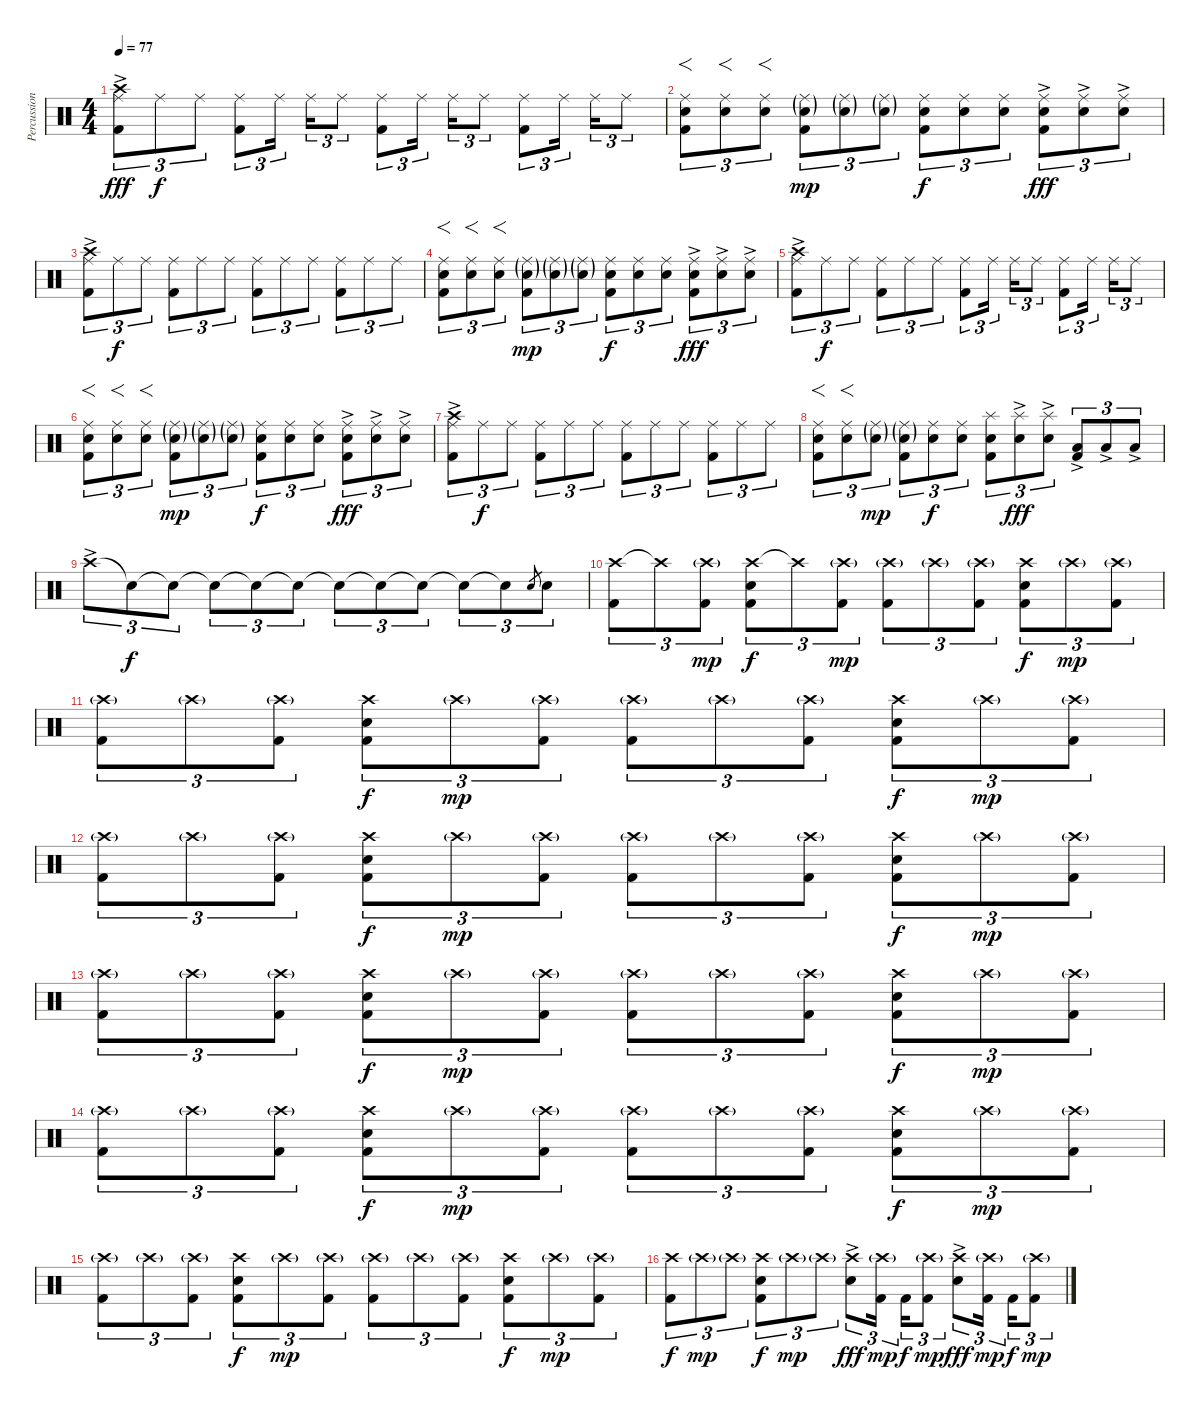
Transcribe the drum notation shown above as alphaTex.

\track ("Percussion" "Percussion") {instrument percussion}
\staff {score}
\articulation defaults
\ts (4 4)
\tempo 77
\clef neutral
\ks c
("Ride (middle)" "Crash high (hit)"{ac} "Kick (hit) 2").8{tu (3 2) dy fff} "Ride (middle)".8{tu (3 2) dy f} "Ride (middle)".8{tu (3 2)} ("Ride (middle)" "Kick (hit) 2").8{tu (3 2)} "Ride (middle)".16{tu (3 2)} "Ride (middle)".16{tu (3 2)} "Ride (middle)".8{tu (3 2)} ("Ride (middle)" "Kick (hit) 2").8{tu (3 2)} "Ride (middle)".16{tu (3 2)} "Ride (middle)".16{tu (3 2)} "Ride (middle)".8{tu (3 2)} ("Ride (middle)" "Kick (hit) 2").8{tu (3 2)} "Ride (middle)".16{tu (3 2)} "Ride (middle)".16{tu (3 2)} "Ride (middle)".8{tu (3 2)} |
("Ride (middle)" "Snare (hit) 2" "Kick (hit) 2").8{f tu (3 2)} ("Ride (middle)" "Snare (hit) 2").8{f tu (3 2)} ("Ride (middle)" "Snare (hit) 2").8{f tu (3 2)} ("Ride (middle)"{g} "Snare (hit) 2"{g} "Kick (hit) 2").8{tu (3 2) dy mp} ("Ride (middle)"{g} "Snare (hit) 2"{g}).8{tu (3 2)} ("Ride (middle)"{g} "Snare (hit) 2"{g}).8{tu (3 2)} ("Ride (middle)" "Snare (hit) 2" "Kick (hit) 2").8{tu (3 2) dy f} ("Ride (middle)" "Snare (hit) 2").8{tu (3 2)} ("Ride (middle)" "Snare (hit) 2").8{tu (3 2)} ("Ride (middle)"{ac} "Snare (hit) 2"{ac} "Kick (hit) 2").8{tu (3 2) dy fff} ("Ride (middle)"{ac} "Snare (hit) 2"{ac}).8{tu (3 2)} ("Ride (middle)"{ac} "Snare (hit) 2"{ac}).8{tu (3 2)} |
("Ride (middle)" "Crash high (hit)"{ac} "Kick (hit) 2").8{tu (3 2)} "Ride (middle)".8{tu (3 2) dy f} "Ride (middle)".8{tu (3 2)} ("Ride (middle)" "Kick (hit) 2").8{tu (3 2)} "Ride (middle)".8{tu (3 2)} "Ride (middle)".8{tu (3 2)} ("Ride (middle)" "Kick (hit) 2").8{tu (3 2)} "Ride (middle)".8{tu (3 2)} "Ride (middle)".8{tu (3 2)} ("Ride (middle)" "Kick (hit) 2").8{tu (3 2)} "Ride (middle)".8{tu (3 2)} "Ride (middle)".8{tu (3 2)} |
("Ride (middle)" "Snare (hit) 2" "Kick (hit) 2").8{f tu (3 2)} ("Ride (middle)" "Snare (hit) 2").8{f tu (3 2)} ("Ride (middle)" "Snare (hit) 2").8{f tu (3 2)} ("Ride (middle)"{g} "Snare (hit) 2"{g} "Kick (hit) 2").8{tu (3 2) dy mp} ("Ride (middle)"{g} "Snare (hit) 2"{g}).8{tu (3 2)} ("Ride (middle)"{g} "Snare (hit) 2"{g}).8{tu (3 2)} ("Ride (middle)" "Snare (hit) 2" "Kick (hit) 2").8{tu (3 2) dy f} ("Ride (middle)" "Snare (hit) 2").8{tu (3 2)} ("Ride (middle)" "Snare (hit) 2").8{tu (3 2)} ("Ride (middle)"{ac} "Snare (hit) 2"{ac} "Kick (hit) 2").8{tu (3 2) dy fff} ("Ride (middle)"{ac} "Snare (hit) 2"{ac}).8{tu (3 2)} ("Ride (middle)"{ac} "Snare (hit) 2"{ac}).8{tu (3 2)} |
("Ride (middle)" "Crash high (hit)"{ac} "Kick (hit) 2").8{tu (3 2)} "Ride (middle)".8{tu (3 2) dy f} "Ride (middle)".8{tu (3 2)} ("Ride (middle)" "Kick (hit) 2").8{tu (3 2)} "Ride (middle)".8{tu (3 2)} "Ride (middle)".8{tu (3 2)} ("Ride (middle)" "Kick (hit) 2").8{tu (3 2)} "Ride (middle)".16{tu (3 2)} "Ride (middle)".16{tu (3 2)} "Ride (middle)".8{tu (3 2)} ("Ride (middle)" "Kick (hit) 2").8{tu (3 2)} "Ride (middle)".16{tu (3 2)} "Ride (middle)".16{tu (3 2)} "Ride (middle)".8{tu (3 2)} |
("Ride (middle)" "Snare (hit) 2" "Kick (hit) 2").8{f tu (3 2)} ("Ride (middle)" "Snare (hit) 2").8{f tu (3 2)} ("Ride (middle)" "Snare (hit) 2").8{f tu (3 2)} ("Ride (middle)"{g} "Snare (hit) 2"{g} "Kick (hit) 2").8{tu (3 2) dy mp} ("Ride (middle)"{g} "Snare (hit) 2"{g}).8{tu (3 2)} ("Ride (middle)"{g} "Snare (hit) 2"{g}).8{tu (3 2)} ("Ride (middle)" "Snare (hit) 2" "Kick (hit) 2").8{tu (3 2) dy f} ("Ride (middle)" "Snare (hit) 2").8{tu (3 2)} ("Ride (middle)" "Snare (hit) 2").8{tu (3 2)} ("Ride (middle)"{ac} "Snare (hit) 2"{ac} "Kick (hit) 2").8{tu (3 2) dy fff} ("Ride (middle)"{ac} "Snare (hit) 2"{ac}).8{tu (3 2)} ("Ride (middle)"{ac} "Snare (hit) 2"{ac}).8{tu (3 2)} |
("Ride (middle)" "Crash high (hit)"{ac} "Kick (hit) 2").8{tu (3 2)} "Ride (middle)".8{tu (3 2) dy f} "Ride (middle)".8{tu (3 2)} ("Ride (middle)" "Kick (hit) 2").8{tu (3 2)} "Ride (middle)".8{tu (3 2)} "Ride (middle)".8{tu (3 2)} ("Ride (middle)" "Kick (hit) 2").8{tu (3 2)} "Ride (middle)".8{tu (3 2)} "Ride (middle)".8{tu (3 2)} ("Ride (middle)" "Kick (hit) 2").8{tu (3 2)} "Ride (middle)".8{tu (3 2)} "Ride (middle)".8{tu (3 2)} |
("Ride (middle)" "Snare (hit) 2" "Kick (hit) 2").8{f tu (3 2)} ("Ride (middle)" "Snare (hit) 2").8{f tu (3 2)} ("Ride (middle)"{g} "Snare (hit) 2"{g}).8{tu (3 2) dy mp} ("Ride (middle)"{g} "Snare (hit) 2"{g} "Kick (hit) 2").8{tu (3 2)} ("Ride (middle)" "Snare (hit) 2").8{tu (3 2) dy f} ("Ride (middle)" "Snare (hit) 2").8{tu (3 2)} ("Splash (hit)" "Snare (hit) 2" "Kick (hit) 2").8{tu (3 2)} ("Splash (hit)"{ac} "Snare (hit) 2"{ac}).8{tu (3 2) dy fff} ("Splash (hit)"{ac} "Snare (hit) 2"{ac}).8{tu (3 2)} ("Low Tom (hit)"{ac} "Kick (hit) 2").8{tu (3 2)} "Low Tom (hit)"{ac}.8{tu (3 2)} "Low Tom (hit)"{ac}.8{tu (3 2)} |
"Crash high (hit)"{ac}.8{tu (3 2)} "Snare (hit)"{t}.8{tu (3 2) dy f} "Snare (hit)"{t}.8{tu (3 2)} "Snare (hit)"{t}.8{tu (3 2)} "Snare (hit)"{t}.8{tu (3 2)} "Snare (hit)"{t}.8{tu (3 2)} "Snare (hit)"{t}.8{tu (3 2)} "Snare (hit)"{t}.8{tu (3 2)} "Snare (hit)"{t}.8{tu (3 2)} "Snare (hit)"{t}.8{tu (3 2)} "Snare (hit)"{t}.8{tu (3 2)} "Snare (hit) 2".8{gr} "Snare (hit) 2".8{tu (3 2)} |
("Crash high (hit)" "Kick (hit) 2").8{tu (3 2)} "Crash high (hit)"{t}.8{tu (3 2)} ("Crash high (hit)"{g} "Kick (hit) 2").8{tu (3 2) dy mp} ("Crash high (hit)" "Snare (hit) 2" "Kick (hit) 2").8{tu (3 2) dy f} "Crash high (hit)"{t}.8{tu (3 2)} ("Crash high (hit)"{g} "Kick (hit) 2").8{tu (3 2) dy mp} ("Crash high (hit)"{g} "Kick (hit) 2").8{tu (3 2)} "Crash high (hit)"{g}.8{tu (3 2)} ("Crash high (hit)"{g} "Kick (hit) 2").8{tu (3 2)} ("Crash high (hit)" "Snare (hit) 2" "Kick (hit) 2").8{tu (3 2) dy f} "Crash high (hit)"{g}.8{tu (3 2) dy mp} ("Crash high (hit)"{g} "Kick (hit) 2").8{tu (3 2)} |
("Crash high (hit)"{g} "Kick (hit) 2").8{tu (3 2)} "Crash high (hit)"{g}.8{tu (3 2)} ("Crash high (hit)"{g} "Kick (hit) 2").8{tu (3 2)} ("Crash high (hit)" "Snare (hit) 2" "Kick (hit) 2").8{tu (3 2) dy f} "Crash high (hit)"{g}.8{tu (3 2) dy mp} ("Crash high (hit)"{g} "Kick (hit) 2").8{tu (3 2)} ("Crash high (hit)"{g} "Kick (hit) 2").8{tu (3 2)} "Crash high (hit)"{g}.8{tu (3 2)} ("Crash high (hit)"{g} "Kick (hit) 2").8{tu (3 2)} ("Crash high (hit)" "Snare (hit) 2" "Kick (hit) 2").8{tu (3 2) dy f} "Crash high (hit)"{g}.8{tu (3 2) dy mp} ("Crash high (hit)"{g} "Kick (hit) 2").8{tu (3 2)} |
("Crash high (hit)"{g} "Kick (hit) 2").8{tu (3 2)} "Crash high (hit)"{g}.8{tu (3 2)} ("Crash high (hit)"{g} "Kick (hit) 2").8{tu (3 2)} ("Crash high (hit)" "Snare (hit) 2" "Kick (hit) 2").8{tu (3 2) dy f} "Crash high (hit)"{g}.8{tu (3 2) dy mp} ("Crash high (hit)"{g} "Kick (hit) 2").8{tu (3 2)} ("Crash high (hit)"{g} "Kick (hit) 2").8{tu (3 2)} "Crash high (hit)"{g}.8{tu (3 2)} ("Crash high (hit)"{g} "Kick (hit) 2").8{tu (3 2)} ("Crash high (hit)" "Snare (hit) 2" "Kick (hit) 2").8{tu (3 2) dy f} "Crash high (hit)"{g}.8{tu (3 2) dy mp} ("Crash high (hit)"{g} "Kick (hit) 2").8{tu (3 2)} |
("Crash high (hit)"{g} "Kick (hit) 2").8{tu (3 2)} "Crash high (hit)"{g}.8{tu (3 2)} ("Crash high (hit)"{g} "Kick (hit) 2").8{tu (3 2)} ("Crash high (hit)" "Snare (hit) 2" "Kick (hit) 2").8{tu (3 2) dy f} "Crash high (hit)"{g}.8{tu (3 2) dy mp} ("Crash high (hit)"{g} "Kick (hit) 2").8{tu (3 2)} ("Crash high (hit)"{g} "Kick (hit) 2").8{tu (3 2)} "Crash high (hit)"{g}.8{tu (3 2)} ("Crash high (hit)"{g} "Kick (hit) 2").8{tu (3 2)} ("Crash high (hit)" "Snare (hit) 2" "Kick (hit) 2").8{tu (3 2) dy f} "Crash high (hit)"{g}.8{tu (3 2) dy mp} ("Crash high (hit)"{g} "Kick (hit) 2").8{tu (3 2)} |
("Crash high (hit)"{g} "Kick (hit) 2").8{tu (3 2)} "Crash high (hit)"{g}.8{tu (3 2)} ("Crash high (hit)"{g} "Kick (hit) 2").8{tu (3 2)} ("Crash high (hit)" "Snare (hit) 2" "Kick (hit) 2").8{tu (3 2) dy f} "Crash high (hit)"{g}.8{tu (3 2) dy mp} ("Crash high (hit)"{g} "Kick (hit) 2").8{tu (3 2)} ("Crash high (hit)"{g} "Kick (hit) 2").8{tu (3 2)} "Crash high (hit)"{g}.8{tu (3 2)} ("Crash high (hit)"{g} "Kick (hit) 2").8{tu (3 2)} ("Crash high (hit)" "Snare (hit) 2" "Kick (hit) 2").8{tu (3 2) dy f} "Crash high (hit)"{g}.8{tu (3 2) dy mp} ("Crash high (hit)"{g} "Kick (hit) 2").8{tu (3 2)} |
("Crash high (hit)"{g} "Kick (hit) 2").8{tu (3 2)} "Crash high (hit)"{g}.8{tu (3 2)} ("Crash high (hit)"{g} "Kick (hit) 2").8{tu (3 2)} ("Crash high (hit)" "Snare (hit) 2" "Kick (hit) 2").8{tu (3 2) dy f} "Crash high (hit)"{g}.8{tu (3 2) dy mp} ("Crash high (hit)"{g} "Kick (hit) 2").8{tu (3 2)} ("Crash high (hit)"{g} "Kick (hit) 2").8{tu (3 2)} "Crash high (hit)"{g}.8{tu (3 2)} ("Crash high (hit)"{g} "Kick (hit) 2").8{tu (3 2)} ("Crash high (hit)" "Snare (hit) 2" "Kick (hit) 2").8{tu (3 2) dy f} "Crash high (hit)"{g}.8{tu (3 2) dy mp} ("Crash high (hit)"{g} "Kick (hit) 2").8{tu (3 2)} |
("Crash high (hit)" "Kick (hit) 2").8{tu (3 2) dy f} "Crash high (hit)"{g}.8{tu (3 2) dy mp} "Crash high (hit)"{g}.8{tu (3 2)} ("Crash high (hit)" "Snare (hit) 2" "Kick (hit) 2").8{tu (3 2) dy f} "Crash high (hit)"{g}.8{tu (3 2) dy mp} "Crash high (hit)"{g}.8{tu (3 2)} ("Crash high (hit)"{ac} "Snare (hit) 2").8{tu (3 2) dy fff} ("Crash high (hit)"{g} "Kick (hit) 2").16{tu (3 2) dy mp} "Kick (hit) 2".16{tu (3 2) dy f} ("Crash high (hit)"{g} "Kick (hit) 2").8{tu (3 2) dy mp} ("Crash high (hit)"{ac} "Snare (hit) 2").8{tu (3 2) dy fff} ("Crash high (hit)"{g} "Kick (hit) 2").16{tu (3 2) dy mp} "Kick (hit) 2".16{tu (3 2) dy f} ("Crash high (hit)"{g} "Kick (hit) 2").8{tu (3 2) dy mp}
